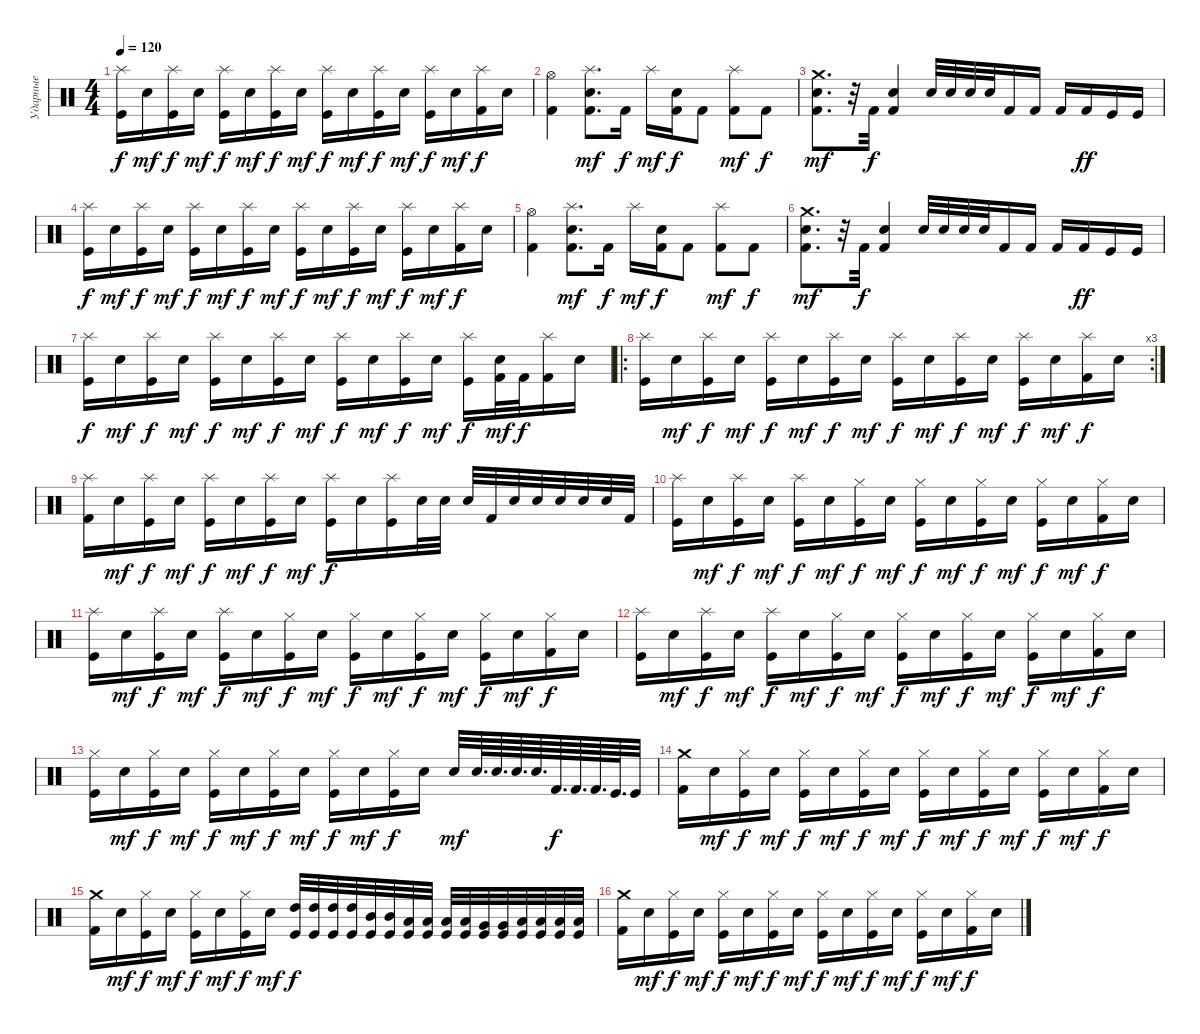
\track ("Ударные" "Ударные") {instrument percussion}
\staff {score}
\articulation defaults
\ts (4 4)
\tempo 120
\clef neutral
\ks c
("Splash (hit)" "Kick (hit)").16{dy f} "Electric Snare (hit)".16{dy mf} ("Splash (hit)" "Kick (hit)").16{dy f} "Electric Snare (hit)".16{dy mf} ("Splash (hit)" "Kick (hit)").16{dy f} "Electric Snare (hit)".16{dy mf} ("Splash (hit)" "Kick (hit)").16{dy f} "Electric Snare (hit)".16{dy mf} ("Splash (hit)" "Kick (hit)").16{dy f} "Electric Snare (hit)".16{dy mf} ("Splash (hit)" "Kick (hit)").16{dy f} "Electric Snare (hit)".16{dy mf} ("Splash (hit)" "Kick (hit)").16{dy f} "Electric Snare (hit)".16{dy mf} ("Splash (hit)" "Kick (hit) 2").16{dy f} "Electric Snare (hit)".16 |
("Hi-Hat (open)" "Kick (hit) 2").4 ("Splash (hit)" "Electric Snare (hit)" "Kick (hit) 2").8{d dy mf} "Kick (hit) 2".16{dy f} "Splash (hit)".16{dy mf} ("Electric Snare (hit)" "Kick (hit) 2").16{dy f} "Kick (hit) 2".8 ("Splash (hit)" "Kick (hit) 2").8{dy mf} "Kick (hit) 2".8{dy f} |
("Crash medium (hit)" "Electric Snare (hit)" "Kick (hit) 2").8{d dy mf} r.32 "Kick (hit) 2".32{dy f} ("Electric Snare (hit)" "Kick (hit) 2").4 "Electric Snare (hit)".32 "Electric Snare (hit)".32 "Snare (hit) 2".32 "Snare (hit) 2".32 "Kick (hit) 2".16 "Kick (hit) 2".16 "Kick (hit) 2".16 "Kick (hit) 2".16{dy ff} "Kick (hit)".16 "Kick (hit)".16 |
("Splash (hit)" "Kick (hit)").16{dy f} "Electric Snare (hit)".16{dy mf} ("Splash (hit)" "Kick (hit)").16{dy f} "Electric Snare (hit)".16{dy mf} ("Splash (hit)" "Kick (hit)").16{dy f} "Electric Snare (hit)".16{dy mf} ("Splash (hit)" "Kick (hit)").16{dy f} "Electric Snare (hit)".16{dy mf} ("Splash (hit)" "Kick (hit)").16{dy f} "Electric Snare (hit)".16{dy mf} ("Splash (hit)" "Kick (hit)").16{dy f} "Electric Snare (hit)".16{dy mf} ("Splash (hit)" "Kick (hit)").16{dy f} "Electric Snare (hit)".16{dy mf} ("Splash (hit)" "Kick (hit) 2").16{dy f} "Electric Snare (hit)".16 |
("Hi-Hat (open)" "Kick (hit) 2").4 ("Splash (hit)" "Electric Snare (hit)" "Kick (hit) 2").8{d dy mf} "Kick (hit) 2".16{dy f} "Splash (hit)".16{dy mf} ("Electric Snare (hit)" "Kick (hit) 2").16{dy f} "Kick (hit) 2".8 ("Splash (hit)" "Kick (hit) 2").8{dy mf} "Kick (hit) 2".8{dy f} |
("Crash medium (hit)" "Electric Snare (hit)" "Kick (hit) 2").8{d dy mf} r.32 "Kick (hit) 2".32{dy f} ("Electric Snare (hit)" "Kick (hit) 2").4 "Electric Snare (hit)".32 "Electric Snare (hit)".32 "Snare (hit) 2".32 "Snare (hit) 2".32 "Kick (hit) 2".16 "Kick (hit) 2".16 "Kick (hit) 2".16 "Kick (hit) 2".16{dy ff} "Kick (hit)".16 "Kick (hit)".16 |
("Splash (hit)" "Kick (hit)").16{dy f} "Electric Snare (hit)".16{dy mf} ("Splash (hit)" "Kick (hit)").16{dy f} "Electric Snare (hit)".16{dy mf} ("Splash (hit)" "Kick (hit)").16{dy f} "Electric Snare (hit)".16{dy mf} ("Splash (hit)" "Kick (hit)").16{dy f} "Electric Snare (hit)".16{dy mf} ("Splash (hit)" "Kick (hit)").16{dy f} "Electric Snare (hit)".16{dy mf} ("Splash (hit)" "Kick (hit)").16{dy f} "Electric Snare (hit)".16{dy mf} ("Splash (hit)" "Kick (hit)").16{dy f} ("Electric Snare (hit)" "Kick (hit) 2").32{dy mf} "Kick (hit) 2".32{dy f} ("Splash (hit)" "Kick (hit) 2").16 "Electric Snare (hit)".16 |
\ro
\rc 3
("Splash (hit)" "Kick (hit)").16 "Electric Snare (hit)".16{dy mf} ("Splash (hit)" "Kick (hit)").16{dy f} "Electric Snare (hit)".16{dy mf} ("Splash (hit)" "Kick (hit)").16{dy f} "Electric Snare (hit)".16{dy mf} ("Splash (hit)" "Kick (hit)").16{dy f} "Electric Snare (hit)".16{dy mf} ("Splash (hit)" "Kick (hit)").16{dy f} "Electric Snare (hit)".16{dy mf} ("Splash (hit)" "Kick (hit)").16{dy f} "Electric Snare (hit)".16{dy mf} ("Splash (hit)" "Kick (hit)").16{dy f} "Electric Snare (hit)".16{dy mf} ("Splash (hit)" "Kick (hit) 2").16{dy f} "Electric Snare (hit)".16 |
("Splash (hit)" "Kick (hit) 2").16 "Electric Snare (hit)".16{dy mf} ("Splash (hit)" "Kick (hit)").16{dy f} "Electric Snare (hit)".16{dy mf} ("Splash (hit)" "Kick (hit)").16{dy f} "Electric Snare (hit)".16{dy mf} ("Splash (hit)" "Kick (hit)").16{dy f} "Electric Snare (hit)".16{dy mf} ("Splash (hit)" "Kick (hit)").16{dy f} "Electric Snare (hit)".16 ("Splash (hit)" "Kick (hit)").16 "Electric Snare (hit)".32 "Snare (hit) 2".32 "Snare (hit) 2".32 "Kick (hit) 2".32 "Electric Snare (hit)".32 "Electric Snare (hit)".32 "Snare (hit) 2".32 "Snare (hit) 2".32 "Snare (hit) 2".32 "Kick (hit) 2".32 |
("Splash (hit)" "Kick (hit)").16 "Electric Snare (hit)".16{dy mf} ("Splash (hit)" "Kick (hit)").16{dy f} "Electric Snare (hit)".16{dy mf} ("Splash (hit)" "Kick (hit)").16{dy f} "Electric Snare (hit)".16{dy mf} ("Hi-Hat (closed)" "Kick (hit)").16{dy f} "Electric Snare (hit)".16{dy mf} ("Hi-Hat (closed)" "Kick (hit)").16{dy f} "Electric Snare (hit)".16{dy mf} ("Hi-Hat (closed)" "Kick (hit)").16{dy f} "Electric Snare (hit)".16{dy mf} ("Hi-Hat (closed)" "Kick (hit)").16{dy f} "Electric Snare (hit)".16{dy mf} ("Hi-Hat (closed)" "Kick (hit) 2").16{dy f} "Electric Snare (hit)".16 |
("Splash (hit)" "Kick (hit)").16 "Electric Snare (hit)".16{dy mf} ("Splash (hit)" "Kick (hit)").16{dy f} "Electric Snare (hit)".16{dy mf} ("Splash (hit)" "Kick (hit)").16{dy f} "Electric Snare (hit)".16{dy mf} ("Hi-Hat (closed)" "Kick (hit)").16{dy f} "Electric Snare (hit)".16{dy mf} ("Hi-Hat (closed)" "Kick (hit)").16{dy f} "Electric Snare (hit)".16{dy mf} ("Hi-Hat (closed)" "Kick (hit)").16{dy f} "Electric Snare (hit)".16{dy mf} ("Hi-Hat (closed)" "Kick (hit)").16{dy f} "Electric Snare (hit)".16{dy mf} ("Hi-Hat (closed)" "Kick (hit) 2").16{dy f} "Electric Snare (hit)".16 |
("Splash (hit)" "Kick (hit)").16 "Electric Snare (hit)".16{dy mf} ("Splash (hit)" "Kick (hit)").16{dy f} "Electric Snare (hit)".16{dy mf} ("Splash (hit)" "Kick (hit)").16{dy f} "Electric Snare (hit)".16{dy mf} ("Hi-Hat (closed)" "Kick (hit)").16{dy f} "Electric Snare (hit)".16{dy mf} ("Hi-Hat (closed)" "Kick (hit)").16{dy f} "Electric Snare (hit)".16{dy mf} ("Hi-Hat (closed)" "Kick (hit)").16{dy f} "Electric Snare (hit)".16{dy mf} ("Hi-Hat (closed)" "Kick (hit)").16{dy f} "Electric Snare (hit)".16{dy mf} ("Hi-Hat (closed)" "Kick (hit) 2").16{dy f} "Electric Snare (hit)".16 |
("Hi-Hat (closed)" "Kick (hit)").16 "Electric Snare (hit)".16{dy mf} ("Hi-Hat (closed)" "Kick (hit)").16{dy f} "Electric Snare (hit)".16{dy mf} ("Hi-Hat (closed)" "Kick (hit)").16{dy f} "Electric Snare (hit)".16{dy mf} ("Hi-Hat (closed)" "Kick (hit)").16{dy f} "Electric Snare (hit)".16{dy mf} ("Hi-Hat (closed)" "Kick (hit)").16{dy f} "Electric Snare (hit)".16{dy mf} ("Hi-Hat (closed)" "Kick (hit)").16{dy f} "Electric Snare (hit)".16 "Snare (hit) 2".32{dy mf} "Snare (hit) 2".64{d} "Snare (hit) 2".64{d} "Electric Snare (hit)".64{d} "Electric Snare (hit)".64{d} "Kick (hit) 2".64{d dy f} "Kick (hit) 2".64{d} "Kick (hit) 2".64{d} "Kick (hit)".64{d} "Kick (hit)".32 |
("Crash medium (hit)" "Kick (hit) 2").16 "Electric Snare (hit)".16{dy mf} ("Hi-Hat (closed)" "Kick (hit)").16{dy f} "Electric Snare (hit)".16{dy mf} ("Hi-Hat (closed)" "Kick (hit)").16{dy f} "Electric Snare (hit)".16{dy mf} ("Hi-Hat (closed)" "Kick (hit)").16{dy f} "Electric Snare (hit)".16{dy mf} ("Hi-Hat (closed)" "Kick (hit)").16{dy f} "Electric Snare (hit)".16{dy mf} ("Hi-Hat (closed)" "Kick (hit)").16{dy f} "Electric Snare (hit)".16{dy mf} ("Hi-Hat (closed)" "Kick (hit)").16{dy f} "Electric Snare (hit)".16{dy mf} ("Hi-Hat (closed)" "Kick (hit) 2").16{dy f} "Electric Snare (hit)".16 |
("Crash medium (hit)" "Kick (hit) 2").16 "Electric Snare (hit)".16{dy mf} ("Hi-Hat (closed)" "Kick (hit)").16{dy f} "Electric Snare (hit)".16{dy mf} ("Hi-Hat (closed)" "Kick (hit)").16{dy f} "Electric Snare (hit)".16{dy mf} ("Hi-Hat (closed)" "Kick (hit)").16{dy f} "Electric Snare (hit)".16{dy mf} ("Kick (hit)" "High Tom (hit)").32{dy f} ("Kick (hit)" "High Tom (hit)").32 ("Kick (hit)" "High Tom (hit)").32 ("Kick (hit)" "High Tom (hit)").32 ("Kick (hit)" "Mid Tom (hit)").32 ("Kick (hit)" "Mid Tom (hit)").32 ("Kick (hit)" "Low Tom (hit)").32 ("Kick (hit)" "Low Tom (hit)").32 ("Kick (hit)" "Low Tom (hit)").32 ("Kick (hit)" "Low Tom (hit)").32 ("Kick (hit)" "Very Low Tom (hit)").32 ("Kick (hit)" "Very Low Tom (hit)").32 ("Kick (hit)" "Low Floor Tom (hit)").32 ("Kick (hit)" "Low Floor Tom (hit)").32 ("Kick (hit)" "Low Floor Tom (hit)").32 ("Kick (hit)" "Low Floor Tom (hit)").32 |
("Crash medium (hit)" "Kick (hit) 2").16 "Electric Snare (hit)".16{dy mf} ("Hi-Hat (closed)" "Kick (hit)").16{dy f} "Electric Snare (hit)".16{dy mf} ("Hi-Hat (closed)" "Kick (hit)").16{dy f} "Electric Snare (hit)".16{dy mf} ("Hi-Hat (closed)" "Kick (hit)").16{dy f} "Electric Snare (hit)".16{dy mf} ("Hi-Hat (closed)" "Kick (hit)").16{dy f} "Electric Snare (hit)".16{dy mf} ("Hi-Hat (closed)" "Kick (hit)").16{dy f} "Electric Snare (hit)".16{dy mf} ("Hi-Hat (closed)" "Kick (hit)").16{dy f} "Electric Snare (hit)".16{dy mf} ("Hi-Hat (closed)" "Kick (hit) 2").16{dy f} "Electric Snare (hit)".16
